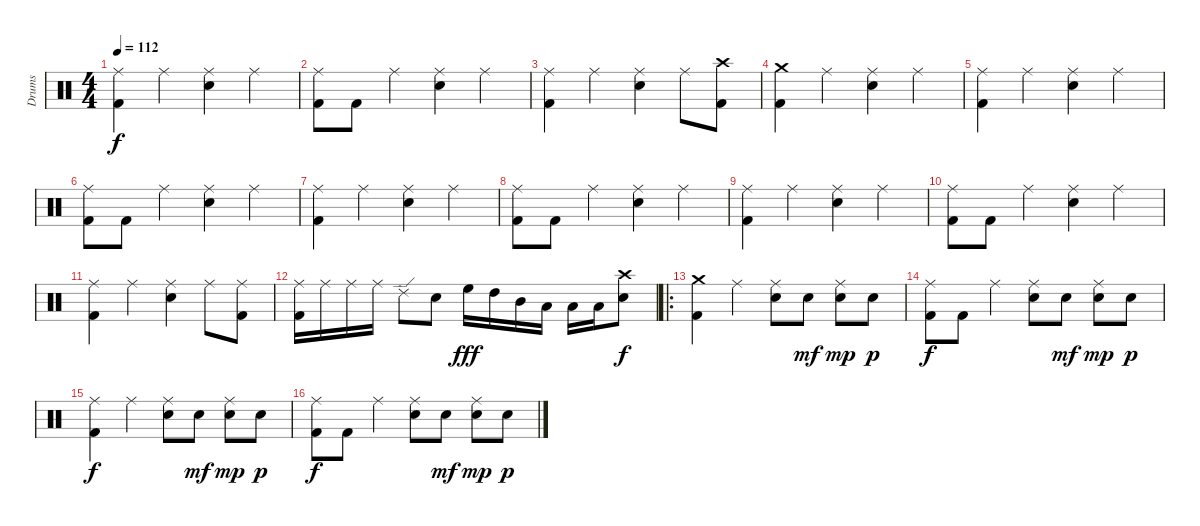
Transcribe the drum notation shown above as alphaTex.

\track ("Drums" "Drums") {instrument percussion}
\staff {score}
\articulation defaults
\ts (4 4)
\tempo 112
\clef neutral
\ks c
("Ride (middle)" "Kick (hit) 2").4{dy f} "Ride (middle)".4 ("Ride (middle)" "Snare (hit) 2").4 "Ride (middle)".4 |
("Ride (middle)" "Kick (hit) 2").8 "Kick (hit) 2".8 "Ride (middle)".4 ("Ride (middle)" "Snare (hit) 2").4 "Ride (middle)".4 |
("Ride (middle)" "Kick (hit) 2").4 "Ride (middle)".4 ("Ride (middle)" "Snare (hit) 2").4 "Ride (middle)".8 ("Crash high (hit)" "Kick (hit) 2").8 |
("Crash medium (hit)" "Kick (hit) 2").4 "Ride (middle)".4 ("Ride (middle)" "Snare (hit) 2").4 "Ride (middle)".4 |
("Ride (middle)" "Kick (hit) 2").4 "Ride (middle)".4 ("Ride (middle)" "Snare (hit) 2").4 "Ride (middle)".4 |
("Ride (middle)" "Kick (hit) 2").8 "Kick (hit) 2".8 "Ride (middle)".4 ("Ride (middle)" "Snare (hit) 2").4 "Ride (middle)".4 |
("Ride (middle)" "Kick (hit) 2").4 "Ride (middle)".4 ("Ride (middle)" "Snare (hit) 2").4 "Ride (middle)".4 |
("Ride (middle)" "Kick (hit) 2").8 "Kick (hit) 2".8 "Ride (middle)".4 ("Ride (middle)" "Snare (hit) 2").4 "Ride (middle)".4 |
("Ride (middle)" "Kick (hit) 2").4 "Ride (middle)".4 ("Ride (middle)" "Snare (hit) 2").4 "Ride (middle)".4 |
("Ride (middle)" "Kick (hit) 2").8 "Kick (hit) 2".8 "Ride (middle)".4 ("Ride (middle)" "Snare (hit) 2").4 "Ride (middle)".4 |
("Ride (middle)" "Kick (hit) 2").4 "Ride (middle)".4 ("Ride (middle)" "Snare (hit) 2").4 "Ride (middle)".8 ("Ride (middle)" "Kick (hit) 2").8 |
("Ride (middle)" "Kick (hit) 2").16 "Ride (middle)".16 "Ride (middle)".16 "Ride (middle)".16 "Ride (edge) 2".8 "Snare (hit) 2".8 "High Floor Tom (hit)".16{dy fff} "High Tom (hit)".16 "Mid Tom (hit)".16 "Low Tom (hit)".16 "Low Tom (hit)".16 "Low Tom (hit)".16 ("Crash high (hit)" "Snare (hit) 2").8{dy f} |
\ro
("Crash medium (hit)" "Kick (hit) 2").4 "Ride (middle)".4 ("Ride (middle)" "Snare (hit) 2").8 "Snare (hit) 2".8{dy mf} ("Ride (middle)" "Snare (hit) 2").8{dy mp} "Snare (hit) 2".8{dy p} |
("Ride (middle)" "Kick (hit) 2").8{dy f} "Kick (hit) 2".8 "Ride (middle)".4 ("Ride (middle)" "Snare (hit) 2").8 "Snare (hit) 2".8{dy mf} ("Ride (middle)" "Snare (hit) 2").8{dy mp} "Snare (hit) 2".8{dy p} |
("Ride (middle)" "Kick (hit) 2").4{dy f} "Ride (middle)".4 ("Ride (middle)" "Snare (hit) 2").8 "Snare (hit) 2".8{dy mf} ("Ride (middle)" "Snare (hit) 2").8{dy mp} "Snare (hit) 2".8{dy p} |
("Ride (middle)" "Kick (hit) 2").8{dy f} "Kick (hit) 2".8 "Ride (middle)".4 ("Ride (middle)" "Snare (hit) 2").8 "Snare (hit) 2".8{dy mf} ("Ride (middle)" "Snare (hit) 2").8{dy mp} "Snare (hit) 2".8{dy p}
